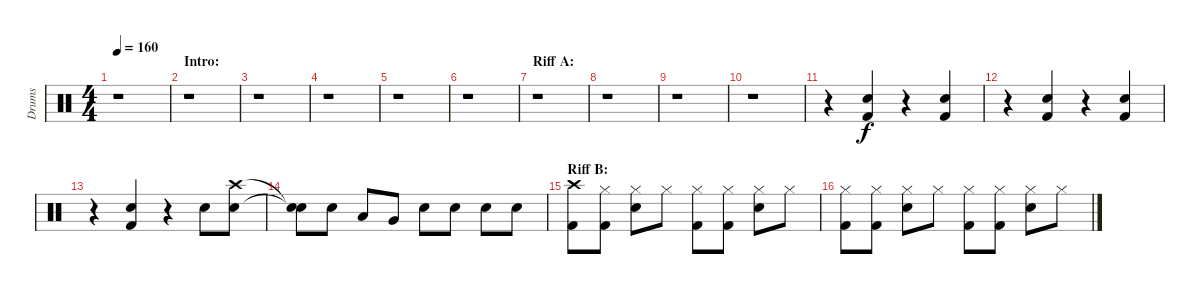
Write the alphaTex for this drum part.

\track ("Drums" "Drums") {instrument percussion}
\staff {score}
\articulation defaults
\ts (4 4)
\tempo 160
\clef neutral
\ks c
r.1{dy f} |
\section ("" "Intro:")
r.1 |
r.1 |
r.1 |
r.1 |
r.1 |
\section ("" "Riff A:")
r.1 |
r.1 |
r.1 |
r.1 |
r.4 ("Electric Snare (hit)" "Kick (hit) 2").4 r.4 ("Electric Snare (hit)" "Kick (hit) 2").4 |
r.4 ("Electric Snare (hit)" "Kick (hit) 2").4 r.4 ("Electric Snare (hit)" "Kick (hit) 2").4 |
r.4 ("Electric Snare (hit)" "Kick (hit) 2").4 r.4 "Electric Snare (hit)".8 ("Crash high (hit)" "Electric Snare (hit)").8 |
("Snare (hit)"{t} "Snare (hit)"{t}).8 "Electric Snare (hit)".8 "Low Tom (hit)".8 "Very Low Tom (hit)".8 "Electric Snare (hit)".8 "Electric Snare (hit)".8 "Electric Snare (hit)".8 "Electric Snare (hit)".8 |
\section ("" "Riff B:")
("Crash high (hit)" "Kick (hit) 2").8 ("Hi-Hat (closed)" "Kick (hit) 2").8 ("Hi-Hat (closed)" "Electric Snare (hit)").8 "Hi-Hat (closed)".8 ("Hi-Hat (closed)" "Kick (hit) 2").8 ("Hi-Hat (closed)" "Kick (hit) 2").8 ("Hi-Hat (closed)" "Electric Snare (hit)").8 "Hi-Hat (closed)".8 |
("Hi-Hat (closed)" "Kick (hit) 2").8 ("Hi-Hat (closed)" "Kick (hit) 2").8 ("Hi-Hat (closed)" "Electric Snare (hit)").8 "Hi-Hat (closed)".8 ("Hi-Hat (closed)" "Kick (hit) 2").8 ("Hi-Hat (closed)" "Kick (hit) 2").8 ("Hi-Hat (closed)" "Electric Snare (hit)").8 "Hi-Hat (closed)".8
